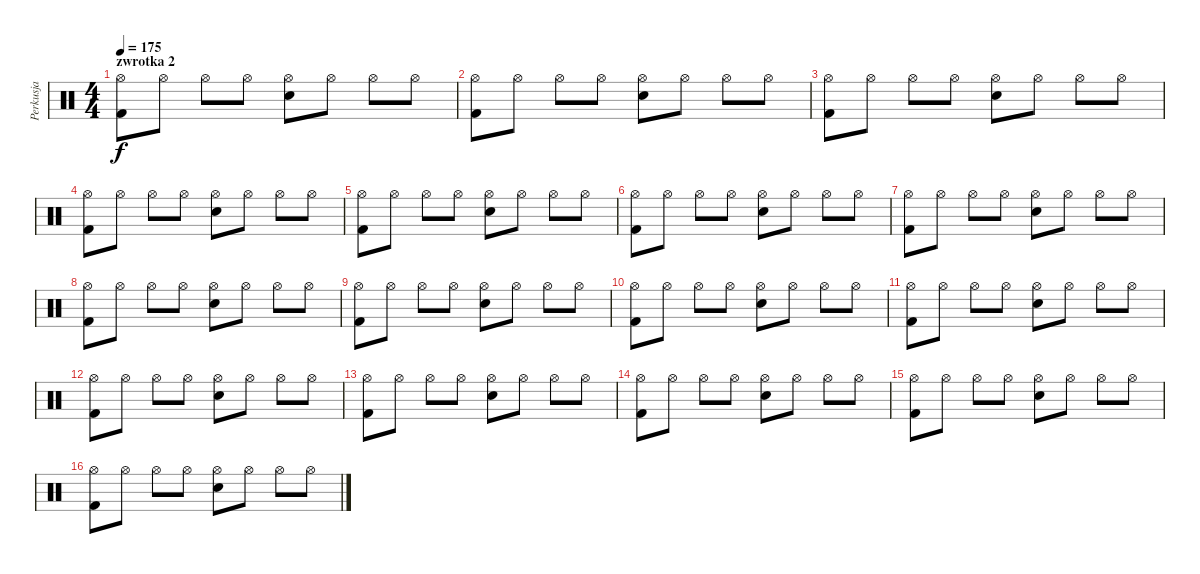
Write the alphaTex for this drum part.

\track ("Perkusja" "Perkusja") {instrument percussion}
\staff {score}
\articulation defaults
\ts (4 4)
\section ("" "zwrotka 2")
\tempo 175
\clef neutral
\ks c
("Kick (hit) 2" "Hi-Hat (open)").8{dy f} "Hi-Hat (open)".8 "Hi-Hat (open)".8 "Hi-Hat (open)".8 ("Snare (hit) 2" "Hi-Hat (open)").8 "Hi-Hat (open)".8 "Hi-Hat (open)".8 "Hi-Hat (open)".8 |
("Kick (hit) 2" "Hi-Hat (open)").8 "Hi-Hat (open)".8 "Hi-Hat (open)".8 "Hi-Hat (open)".8 ("Snare (hit) 2" "Hi-Hat (open)").8 "Hi-Hat (open)".8 "Hi-Hat (open)".8 "Hi-Hat (open)".8 |
("Kick (hit) 2" "Hi-Hat (open)").8 "Hi-Hat (open)".8 "Hi-Hat (open)".8 "Hi-Hat (open)".8 ("Snare (hit) 2" "Hi-Hat (open)").8 "Hi-Hat (open)".8 "Hi-Hat (open)".8 "Hi-Hat (open)".8 |
("Kick (hit) 2" "Hi-Hat (open)").8 "Hi-Hat (open)".8 "Hi-Hat (open)".8 "Hi-Hat (open)".8 ("Snare (hit) 2" "Hi-Hat (open)").8 "Hi-Hat (open)".8 "Hi-Hat (open)".8 "Hi-Hat (open)".8 |
("Kick (hit) 2" "Hi-Hat (open)").8 "Hi-Hat (open)".8 "Hi-Hat (open)".8 "Hi-Hat (open)".8 ("Snare (hit) 2" "Hi-Hat (open)").8 "Hi-Hat (open)".8 "Hi-Hat (open)".8 "Hi-Hat (open)".8 |
("Kick (hit) 2" "Hi-Hat (open)").8 "Hi-Hat (open)".8 "Hi-Hat (open)".8 "Hi-Hat (open)".8 ("Snare (hit) 2" "Hi-Hat (open)").8 "Hi-Hat (open)".8 "Hi-Hat (open)".8 "Hi-Hat (open)".8 |
("Kick (hit) 2" "Hi-Hat (open)").8 "Hi-Hat (open)".8 "Hi-Hat (open)".8 "Hi-Hat (open)".8 ("Snare (hit) 2" "Hi-Hat (open)").8 "Hi-Hat (open)".8 "Hi-Hat (open)".8 "Hi-Hat (open)".8 |
("Kick (hit) 2" "Hi-Hat (open)").8 "Hi-Hat (open)".8 "Hi-Hat (open)".8 "Hi-Hat (open)".8 ("Snare (hit) 2" "Hi-Hat (open)").8 "Hi-Hat (open)".8 "Hi-Hat (open)".8 "Hi-Hat (open)".8 |
("Kick (hit) 2" "Hi-Hat (open)").8 "Hi-Hat (open)".8 "Hi-Hat (open)".8 "Hi-Hat (open)".8 ("Snare (hit) 2" "Hi-Hat (open)").8 "Hi-Hat (open)".8 "Hi-Hat (open)".8 "Hi-Hat (open)".8 |
("Kick (hit) 2" "Hi-Hat (open)").8 "Hi-Hat (open)".8 "Hi-Hat (open)".8 "Hi-Hat (open)".8 ("Snare (hit) 2" "Hi-Hat (open)").8 "Hi-Hat (open)".8 "Hi-Hat (open)".8 "Hi-Hat (open)".8 |
("Kick (hit) 2" "Hi-Hat (open)").8 "Hi-Hat (open)".8 "Hi-Hat (open)".8 "Hi-Hat (open)".8 ("Snare (hit) 2" "Hi-Hat (open)").8 "Hi-Hat (open)".8 "Hi-Hat (open)".8 "Hi-Hat (open)".8 |
("Kick (hit) 2" "Hi-Hat (open)").8 "Hi-Hat (open)".8 "Hi-Hat (open)".8 "Hi-Hat (open)".8 ("Snare (hit) 2" "Hi-Hat (open)").8 "Hi-Hat (open)".8 "Hi-Hat (open)".8 "Hi-Hat (open)".8 |
("Kick (hit) 2" "Hi-Hat (open)").8 "Hi-Hat (open)".8 "Hi-Hat (open)".8 "Hi-Hat (open)".8 ("Snare (hit) 2" "Hi-Hat (open)").8 "Hi-Hat (open)".8 "Hi-Hat (open)".8 "Hi-Hat (open)".8 |
("Kick (hit) 2" "Hi-Hat (open)").8 "Hi-Hat (open)".8 "Hi-Hat (open)".8 "Hi-Hat (open)".8 ("Snare (hit) 2" "Hi-Hat (open)").8 "Hi-Hat (open)".8 "Hi-Hat (open)".8 "Hi-Hat (open)".8 |
("Kick (hit) 2" "Hi-Hat (open)").8 "Hi-Hat (open)".8 "Hi-Hat (open)".8 "Hi-Hat (open)".8 ("Snare (hit) 2" "Hi-Hat (open)").8 "Hi-Hat (open)".8 "Hi-Hat (open)".8 "Hi-Hat (open)".8 |
("Kick (hit) 2" "Hi-Hat (open)").8 "Hi-Hat (open)".8 "Hi-Hat (open)".8 "Hi-Hat (open)".8 ("Snare (hit) 2" "Hi-Hat (open)").8 "Hi-Hat (open)".8 "Hi-Hat (open)".8 "Hi-Hat (open)".8
